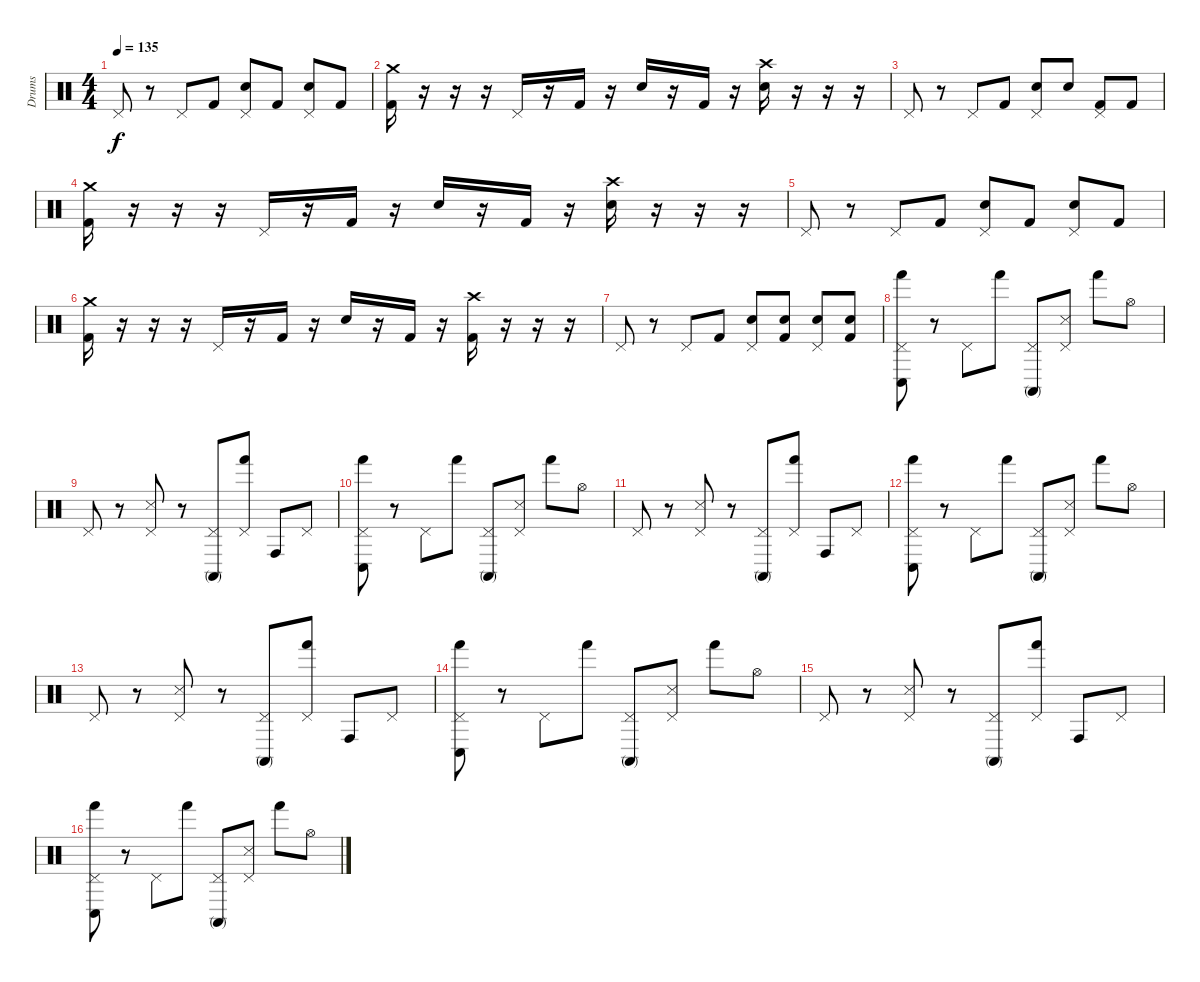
\track ("Drums" "Drums") {instrument percussion}
\staff {score}
\articulation defaults
\ts (4 4)
\tempo 135
\clef neutral
\ks c "Pedal Hi-Hat (hit)".8{dy f}
r.8 "Pedal Hi-Hat (hit)".8 "Kick (hit) 2".8 ("Pedal Hi-Hat (hit)" "Snare (hit) 2").8 "Kick (hit) 2".8 ("Pedal Hi-Hat (hit)" "Snare (hit) 2").8 "Kick (hit) 2".8 |
("Crash medium (hit)" "Kick (hit) 2").16 r.16 r.16 r.16 "Pedal Hi-Hat (hit)".16 r.16 "Kick (hit) 2".16 r.16 "Snare (hit) 2".16 r.16 "Kick (hit) 2".16 r.16 ("Crash high (hit)" "Snare (hit) 2").16 r.16 r.16 r.16 |
"Pedal Hi-Hat (hit)".8 r.8 "Pedal Hi-Hat (hit)".8 "Kick (hit) 2".8 ("Pedal Hi-Hat (hit)" "Snare (hit) 2").8 "Snare (hit) 2".8 ("Pedal Hi-Hat (hit)" "Kick (hit) 2").8 "Kick (hit) 2".8 |
("Crash medium (hit)" "Kick (hit) 2").16 r.16 r.16 r.16 "Pedal Hi-Hat (hit)".16 r.16 "Kick (hit) 2".16 r.16 "Snare (hit) 2".16 r.16 "Kick (hit) 2".16 r.16 ("Crash high (hit)" "Snare (hit) 2").16 r.16 r.16 r.16 |
"Pedal Hi-Hat (hit)".8 r.8 "Pedal Hi-Hat (hit)".8 "Kick (hit) 2".8 ("Pedal Hi-Hat (hit)" "Snare (hit) 2").8 "Kick (hit) 2".8 ("Pedal Hi-Hat (hit)" "Snare (hit) 2").8 "Kick (hit) 2".8 |
("Crash medium (hit)" "Kick (hit) 2").16 r.16 r.16 r.16 "Pedal Hi-Hat (hit)".16 r.16 "Kick (hit) 2".16 r.16 "Snare (hit) 2".16 r.16 "Kick (hit) 2".16 r.16 ("Crash high (hit)" "Kick (hit) 2").16 r.16 r.16 r.16 |
"Pedal Hi-Hat (hit)".8 r.8 "Pedal Hi-Hat (hit)".8 "Kick (hit) 2".8 ("Pedal Hi-Hat (hit)" "Snare (hit) 2").8 ("Snare (hit) 2" "Kick (hit) 2").8 ("Pedal Hi-Hat (hit)" "Snare (hit) 2").8 ("Snare (hit) 2" "Kick (hit) 2").8 |
("Pedal Hi-Hat (hit)" "Conga low (hit)" "Hand (hit)").8 r.8 "Pedal Hi-Hat (hit)".8 "Hand (hit)".8 ("Pedal Hi-Hat (hit)" "Conga high (mute)").8 ("Pedal Hi-Hat (hit)" "Snare (side stick) 3").8 "Hand (hit)".8 "Hi-Hat (open)".8 |
"Pedal Hi-Hat (hit)".8 r.8 ("Pedal Hi-Hat (hit)" "Snare (side stick) 3").8 r.8 ("Pedal Hi-Hat (hit)" "Conga high (mute)").8 ("Pedal Hi-Hat (hit)" "Hand (hit)").8 "Conga high (hit)".8 "Pedal Hi-Hat (hit)".8 |
("Pedal Hi-Hat (hit)" "Conga low (hit)" "Hand (hit)").8 r.8 "Pedal Hi-Hat (hit)".8 "Hand (hit)".8 ("Pedal Hi-Hat (hit)" "Conga high (mute)").8 ("Pedal Hi-Hat (hit)" "Snare (side stick) 3").8 "Hand (hit)".8 "Hi-Hat (open)".8 |
"Pedal Hi-Hat (hit)".8 r.8 ("Pedal Hi-Hat (hit)" "Snare (side stick) 3").8 r.8 ("Pedal Hi-Hat (hit)" "Conga high (mute)").8 ("Pedal Hi-Hat (hit)" "Hand (hit)").8 "Conga high (hit)".8 "Pedal Hi-Hat (hit)".8 |
("Pedal Hi-Hat (hit)" "Conga low (hit)" "Hand (hit)").8 r.8 "Pedal Hi-Hat (hit)".8 "Hand (hit)".8 ("Pedal Hi-Hat (hit)" "Conga high (mute)").8 ("Pedal Hi-Hat (hit)" "Snare (side stick) 3").8 "Hand (hit)".8 "Hi-Hat (open)".8 |
"Pedal Hi-Hat (hit)".8 r.8 ("Pedal Hi-Hat (hit)" "Snare (side stick) 3").8 r.8 ("Pedal Hi-Hat (hit)" "Conga high (mute)").8 ("Pedal Hi-Hat (hit)" "Hand (hit)").8 "Conga high (hit)".8 "Pedal Hi-Hat (hit)".8 |
("Pedal Hi-Hat (hit)" "Conga low (hit)" "Hand (hit)").8 r.8 "Pedal Hi-Hat (hit)".8 "Hand (hit)".8 ("Pedal Hi-Hat (hit)" "Conga high (mute)").8 ("Pedal Hi-Hat (hit)" "Snare (side stick) 3").8 "Hand (hit)".8 "Hi-Hat (open)".8 |
"Pedal Hi-Hat (hit)".8 r.8 ("Pedal Hi-Hat (hit)" "Snare (side stick) 3").8 r.8 ("Pedal Hi-Hat (hit)" "Conga high (mute)").8 ("Pedal Hi-Hat (hit)" "Hand (hit)").8 "Conga high (hit)".8 "Pedal Hi-Hat (hit)".8 |
("Pedal Hi-Hat (hit)" "Conga low (hit)" "Hand (hit)").8 r.8 "Pedal Hi-Hat (hit)".8 "Hand (hit)".8 ("Pedal Hi-Hat (hit)" "Conga high (mute)").8 ("Pedal Hi-Hat (hit)" "Snare (side stick) 3").8 "Hand (hit)".8 "Hi-Hat (open)".8
